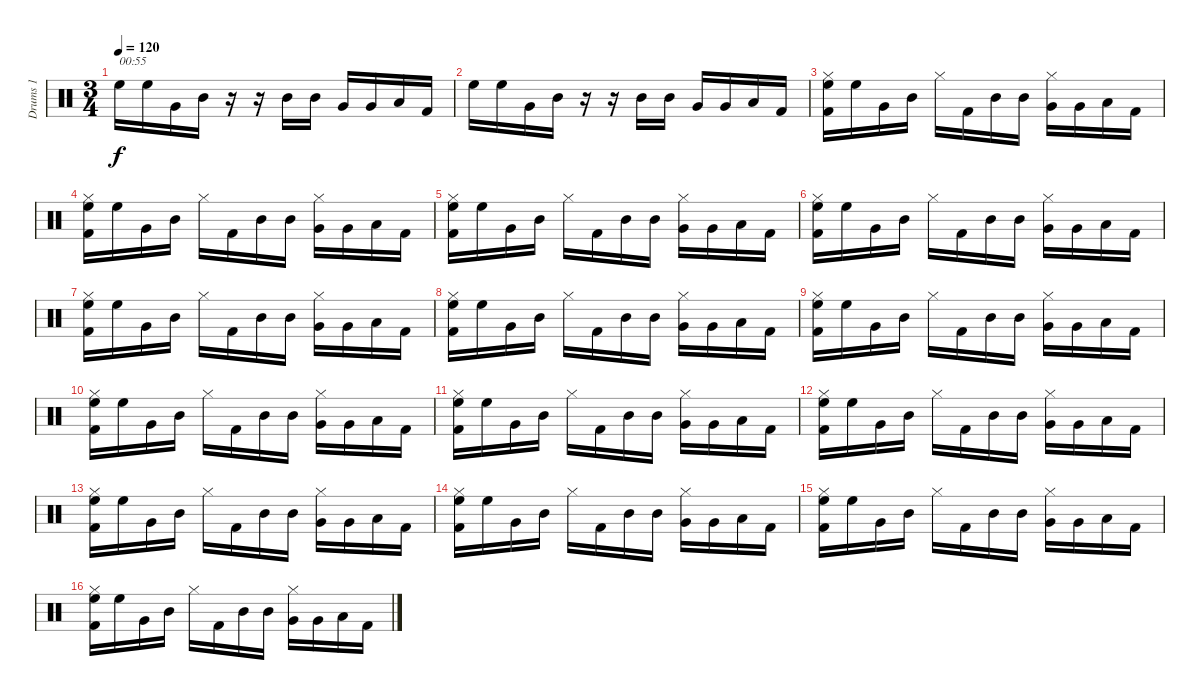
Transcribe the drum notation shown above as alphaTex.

\track ("Drums 1" "Drums 1") {instrument percussion}
\staff {score}
\articulation defaults
\ts (3 4)
\tempo 120
\clef neutral
\ks c "High Floor Tom (hit)".16{txt "00:55" dy f} "High Floor Tom (hit)".16 "Very Low Tom (hit)".16 "Mid Tom (hit)".16
r.16 r.16 "Mid Tom (hit)".16 "Mid Tom (hit)".16 "Very Low Tom (hit)".16 "Very Low Tom (hit)".16 "Low Floor Tom (hit)".16 "Kick (hit) 2".16 |
"High Floor Tom (hit)".16 "High Floor Tom (hit)".16 "Very Low Tom (hit)".16 "Mid Tom (hit)".16 r.16 r.16 "Mid Tom (hit)".16 "Mid Tom (hit)".16 "Very Low Tom (hit)".16 "Very Low Tom (hit)".16 "Low Floor Tom (hit)".16 "Kick (hit) 2".16 |
("High Floor Tom (hit)" "Kick (hit) 2" "Hi-Hat (closed)").16{volume 15} "High Floor Tom (hit)".16 "Very Low Tom (hit)".16 "Mid Tom (hit)".16 "Hi-Hat (closed)".16 "Kick (hit) 2".16 "Mid Tom (hit)".16 "Mid Tom (hit)".16 ("Very Low Tom (hit)" "Hi-Hat (closed)").16 "Very Low Tom (hit)".16 "Low Floor Tom (hit)".16 "Kick (hit) 2".16 |
("High Floor Tom (hit)" "Kick (hit) 2" "Hi-Hat (closed)").16 "High Floor Tom (hit)".16 "Very Low Tom (hit)".16 "Mid Tom (hit)".16 "Hi-Hat (closed)".16 "Kick (hit) 2".16 "Mid Tom (hit)".16 "Mid Tom (hit)".16 ("Very Low Tom (hit)" "Hi-Hat (closed)").16 "Very Low Tom (hit)".16 "Low Floor Tom (hit)".16 "Kick (hit) 2".16 |
("High Floor Tom (hit)" "Kick (hit) 2" "Hi-Hat (closed)").16 "High Floor Tom (hit)".16 "Very Low Tom (hit)".16 "Mid Tom (hit)".16 "Hi-Hat (closed)".16 "Kick (hit) 2".16 "Mid Tom (hit)".16 "Mid Tom (hit)".16 ("Very Low Tom (hit)" "Hi-Hat (closed)").16 "Very Low Tom (hit)".16 "Low Floor Tom (hit)".16 "Kick (hit) 2".16 |
("High Floor Tom (hit)" "Kick (hit) 2" "Hi-Hat (closed)").16 "High Floor Tom (hit)".16 "Very Low Tom (hit)".16 "Mid Tom (hit)".16 "Hi-Hat (closed)".16 "Kick (hit) 2".16 "Mid Tom (hit)".16 "Mid Tom (hit)".16 ("Very Low Tom (hit)" "Hi-Hat (closed)").16 "Very Low Tom (hit)".16 "Low Floor Tom (hit)".16 "Kick (hit) 2".16 |
("High Floor Tom (hit)" "Kick (hit) 2" "Hi-Hat (closed)").16 "High Floor Tom (hit)".16 "Very Low Tom (hit)".16 "Mid Tom (hit)".16 "Hi-Hat (closed)".16 "Kick (hit) 2".16 "Mid Tom (hit)".16 "Mid Tom (hit)".16 ("Very Low Tom (hit)" "Hi-Hat (closed)").16 "Very Low Tom (hit)".16 "Low Floor Tom (hit)".16 "Kick (hit) 2".16 |
("High Floor Tom (hit)" "Kick (hit) 2" "Hi-Hat (closed)").16 "High Floor Tom (hit)".16 "Very Low Tom (hit)".16 "Mid Tom (hit)".16 "Hi-Hat (closed)".16 "Kick (hit) 2".16 "Mid Tom (hit)".16 "Mid Tom (hit)".16 ("Very Low Tom (hit)" "Hi-Hat (closed)").16 "Very Low Tom (hit)".16 "Low Floor Tom (hit)".16 "Kick (hit) 2".16 |
("High Floor Tom (hit)" "Kick (hit) 2" "Hi-Hat (closed)").16 "High Floor Tom (hit)".16 "Very Low Tom (hit)".16 "Mid Tom (hit)".16 "Hi-Hat (closed)".16 "Kick (hit) 2".16 "Mid Tom (hit)".16 "Mid Tom (hit)".16 ("Very Low Tom (hit)" "Hi-Hat (closed)").16 "Very Low Tom (hit)".16 "Low Floor Tom (hit)".16 "Kick (hit) 2".16 |
("High Floor Tom (hit)" "Kick (hit) 2" "Hi-Hat (closed)").16 "High Floor Tom (hit)".16 "Very Low Tom (hit)".16 "Mid Tom (hit)".16 "Hi-Hat (closed)".16 "Kick (hit) 2".16 "Mid Tom (hit)".16 "Mid Tom (hit)".16 ("Very Low Tom (hit)" "Hi-Hat (closed)").16 "Very Low Tom (hit)".16 "Low Floor Tom (hit)".16 "Kick (hit) 2".16 |
("High Floor Tom (hit)" "Kick (hit) 2" "Hi-Hat (closed)").16 "High Floor Tom (hit)".16 "Very Low Tom (hit)".16 "Mid Tom (hit)".16 "Hi-Hat (closed)".16 "Kick (hit) 2".16 "Mid Tom (hit)".16 "Mid Tom (hit)".16 ("Very Low Tom (hit)" "Hi-Hat (closed)").16 "Very Low Tom (hit)".16 "Low Floor Tom (hit)".16 "Kick (hit) 2".16 |
("High Floor Tom (hit)" "Kick (hit) 2" "Hi-Hat (closed)").16 "High Floor Tom (hit)".16 "Very Low Tom (hit)".16 "Mid Tom (hit)".16 "Hi-Hat (closed)".16 "Kick (hit) 2".16 "Mid Tom (hit)".16 "Mid Tom (hit)".16 ("Very Low Tom (hit)" "Hi-Hat (closed)").16 "Very Low Tom (hit)".16 "Low Floor Tom (hit)".16 "Kick (hit) 2".16 |
("High Floor Tom (hit)" "Kick (hit) 2" "Hi-Hat (closed)").16 "High Floor Tom (hit)".16 "Very Low Tom (hit)".16 "Mid Tom (hit)".16 "Hi-Hat (closed)".16 "Kick (hit) 2".16 "Mid Tom (hit)".16 "Mid Tom (hit)".16 ("Very Low Tom (hit)" "Hi-Hat (closed)").16 "Very Low Tom (hit)".16 "Low Floor Tom (hit)".16 "Kick (hit) 2".16 |
("High Floor Tom (hit)" "Kick (hit) 2" "Hi-Hat (closed)").16 "High Floor Tom (hit)".16 "Very Low Tom (hit)".16 "Mid Tom (hit)".16 "Hi-Hat (closed)".16 "Kick (hit) 2".16 "Mid Tom (hit)".16 "Mid Tom (hit)".16 ("Very Low Tom (hit)" "Hi-Hat (closed)").16 "Very Low Tom (hit)".16 "Low Floor Tom (hit)".16 "Kick (hit) 2".16 |
("High Floor Tom (hit)" "Kick (hit) 2" "Hi-Hat (closed)").16 "High Floor Tom (hit)".16 "Very Low Tom (hit)".16 "Mid Tom (hit)".16 "Hi-Hat (closed)".16 "Kick (hit) 2".16 "Mid Tom (hit)".16 "Mid Tom (hit)".16 ("Very Low Tom (hit)" "Hi-Hat (closed)").16 "Very Low Tom (hit)".16 "Low Floor Tom (hit)".16 "Kick (hit) 2".16 |
("High Floor Tom (hit)" "Kick (hit) 2" "Hi-Hat (closed)").16 "High Floor Tom (hit)".16 "Very Low Tom (hit)".16 "Mid Tom (hit)".16 "Hi-Hat (closed)".16 "Kick (hit) 2".16 "Mid Tom (hit)".16 "Mid Tom (hit)".16 ("Very Low Tom (hit)" "Hi-Hat (closed)").16 "Very Low Tom (hit)".16 "Low Floor Tom (hit)".16 "Kick (hit) 2".16
